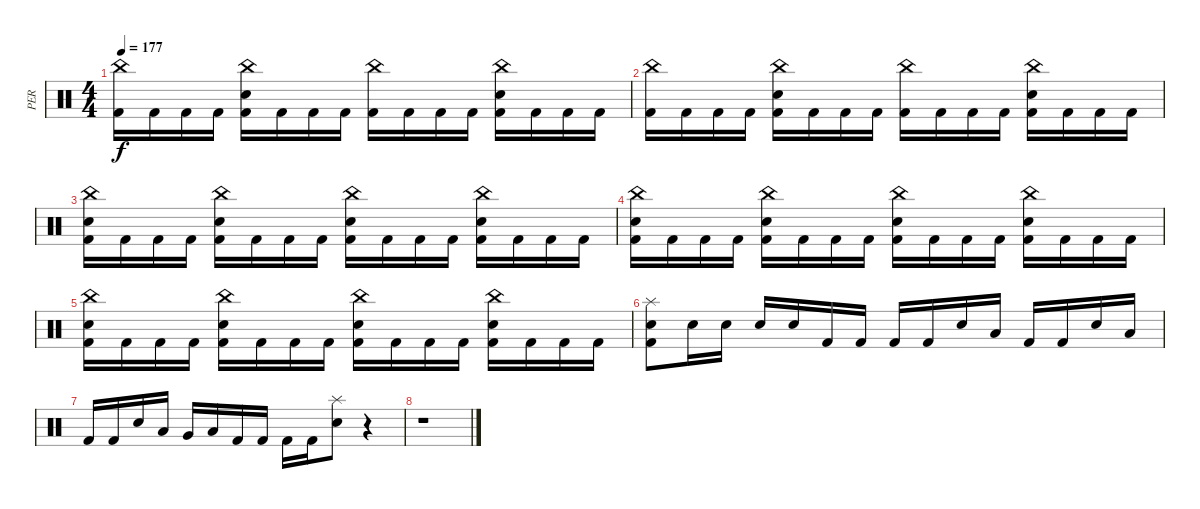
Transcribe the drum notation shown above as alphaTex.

\track ("PER" "PER") {instrument percussion}
\staff {score}
\articulation defaults
\ts (4 4)
\tempo 177
\clef neutral
\ks c
("China (hit)" "Kick (hit) 2").16{dy f} "Kick (hit) 2".16 "Kick (hit) 2".16 "Kick (hit) 2".16 ("China (hit)" "Electric Snare (hit)" "Kick (hit) 2").16 "Kick (hit) 2".16 "Kick (hit) 2".16 "Kick (hit) 2".16 ("China (hit)" "Kick (hit) 2").16 "Kick (hit) 2".16 "Kick (hit) 2".16 "Kick (hit) 2".16 ("China (hit)" "Electric Snare (hit)" "Kick (hit) 2").16 "Kick (hit) 2".16 "Kick (hit) 2".16 "Kick (hit) 2".16 |
("China (hit)" "Kick (hit) 2").16 "Kick (hit) 2".16 "Kick (hit) 2".16 "Kick (hit) 2".16 ("China (hit)" "Electric Snare (hit)" "Kick (hit) 2").16 "Kick (hit) 2".16 "Kick (hit) 2".16 "Kick (hit) 2".16 ("China (hit)" "Kick (hit) 2").16 "Kick (hit) 2".16 "Kick (hit) 2".16 "Kick (hit) 2".16 ("China (hit)" "Electric Snare (hit)" "Kick (hit) 2").16 "Kick (hit) 2".16 "Kick (hit) 2".16 "Kick (hit) 2".16 |
("China (hit)" "Electric Snare (hit)" "Kick (hit) 2").16 "Kick (hit) 2".16 "Kick (hit) 2".16 "Kick (hit) 2".16 ("China (hit)" "Electric Snare (hit)" "Kick (hit) 2").16 "Kick (hit) 2".16 "Kick (hit) 2".16 "Kick (hit) 2".16 ("China (hit)" "Electric Snare (hit)" "Kick (hit) 2").16 "Kick (hit) 2".16 "Kick (hit) 2".16 "Kick (hit) 2".16 ("China (hit)" "Electric Snare (hit)" "Kick (hit) 2").16 "Kick (hit) 2".16 "Kick (hit) 2".16 "Kick (hit) 2".16 |
("China (hit)" "Electric Snare (hit)" "Kick (hit) 2").16 "Kick (hit) 2".16 "Kick (hit) 2".16 "Kick (hit) 2".16 ("China (hit)" "Electric Snare (hit)" "Kick (hit) 2").16 "Kick (hit) 2".16 "Kick (hit) 2".16 "Kick (hit) 2".16 ("China (hit)" "Electric Snare (hit)" "Kick (hit) 2").16 "Kick (hit) 2".16 "Kick (hit) 2".16 "Kick (hit) 2".16 ("China (hit)" "Electric Snare (hit)" "Kick (hit) 2").16 "Kick (hit) 2".16 "Kick (hit) 2".16 "Kick (hit) 2".16 |
("China (hit)" "Electric Snare (hit)" "Kick (hit) 2").16 "Kick (hit) 2".16 "Kick (hit) 2".16 "Kick (hit) 2".16 ("China (hit)" "Electric Snare (hit)" "Kick (hit) 2").16 "Kick (hit) 2".16 "Kick (hit) 2".16 "Kick (hit) 2".16 ("China (hit)" "Electric Snare (hit)" "Kick (hit) 2").16 "Kick (hit) 2".16 "Kick (hit) 2".16 "Kick (hit) 2".16 ("China (hit)" "Electric Snare (hit)" "Kick (hit) 2").16 "Kick (hit) 2".16 "Kick (hit) 2".16 "Kick (hit) 2".16 |
("Splash (hit)" "Electric Snare (hit)" "Kick (hit) 2").8 "Electric Snare (hit)".16 "Electric Snare (hit)".16 "Electric Snare (hit)".16 "Electric Snare (hit)".16 "Kick (hit) 2".16 "Kick (hit) 2".16 "Kick (hit) 2".16 "Kick (hit) 2".16 "Electric Snare (hit)".16 "Low Tom (hit)".16 "Kick (hit) 2".16 "Kick (hit) 2".16 "Electric Snare (hit)".16 "Low Tom (hit)".16 |
"Kick (hit) 2".16 "Kick (hit) 2".16 "Electric Snare (hit)".16 "Low Tom (hit)".16 "Very Low Tom (hit)".16 "Low Floor Tom (hit)".16 "Kick (hit) 2".16 "Kick (hit) 2".16 "Kick (hit) 2".16 "Kick (hit) 2".16 ("Splash (hit)" "Electric Snare (hit)").8 r.4 |
r.1
